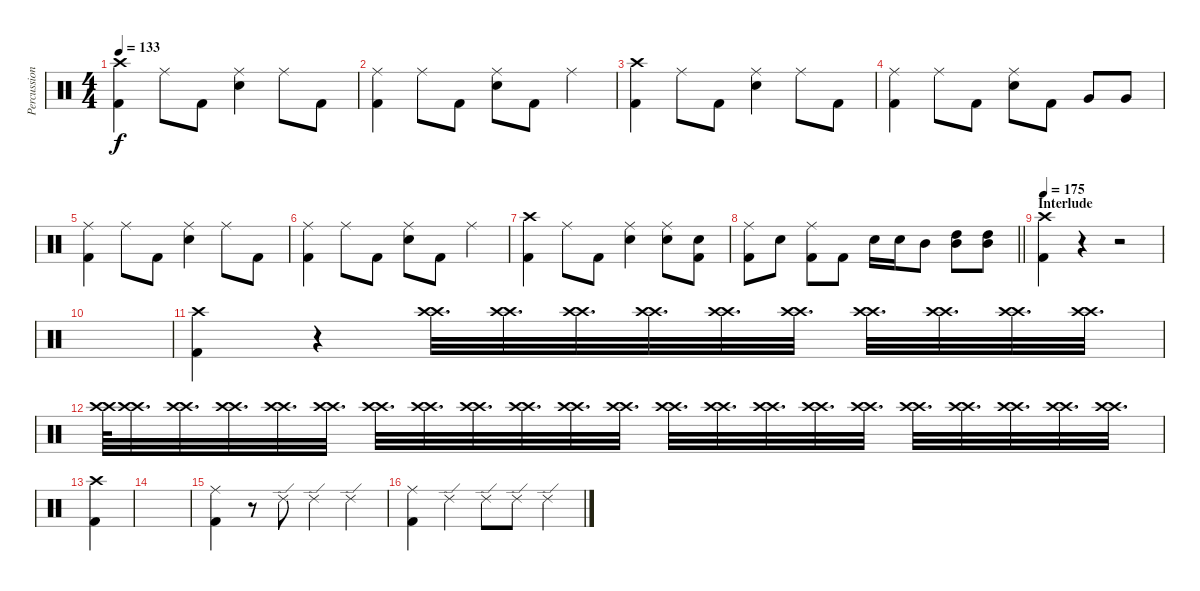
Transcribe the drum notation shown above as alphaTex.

\track ("Percussion" "Percussion") {instrument percussion}
\staff {score}
\articulation defaults
\ts (4 4)
\tempo 133
\clef neutral
\ks c
("Crash high (hit)" "Kick (hit) 2").4{dy f} "Ride (middle)".8 "Kick (hit) 2".8 ("Ride (middle)" "Electric Snare (hit)").4 "Ride (middle)".8 "Kick (hit) 2".8 |
("Ride (middle)" "Kick (hit) 2").4 "Ride (middle)".8 "Kick (hit) 2".8 ("Ride (middle)" "Electric Snare (hit)").8 "Kick (hit) 2".8 "Ride (middle)".4 |
("Crash high (hit)" "Kick (hit) 2").4 "Ride (middle)".8 "Kick (hit) 2".8 ("Ride (middle)" "Electric Snare (hit)").4 "Ride (middle)".8 "Kick (hit) 2".8 |
("Ride (middle)" "Kick (hit) 2").4 "Ride (middle)".8 "Kick (hit) 2".8 ("Ride (middle)" "Electric Snare (hit)").8 "Kick (hit) 2".8 "Very Low Tom (hit)".8 "Very Low Tom (hit)".8 |
("Ride (middle)" "Kick (hit) 2").4 "Ride (middle)".8 "Kick (hit) 2".8 ("Ride (middle)" "Electric Snare (hit)").4 "Ride (middle)".8 "Kick (hit) 2".8 |
("Ride (middle)" "Kick (hit) 2").4 "Ride (middle)".8 "Kick (hit) 2".8 ("Ride (middle)" "Electric Snare (hit)").8 "Kick (hit) 2".8 "Ride (middle)".4 |
("Crash high (hit)" "Kick (hit) 2").4 "Ride (middle)".8 "Kick (hit) 2".8 ("Ride (middle)" "Electric Snare (hit)").4 ("Ride (middle)" "Electric Snare (hit)").8 ("Electric Snare (hit)" "Kick (hit) 2").8 |
\barLineRight lightlight
("Ride (middle)" "Kick (hit) 2").8 "Electric Snare (hit)".8 ("Ride (middle)" "Kick (hit) 2").8 "Kick (hit) 2".8 "Electric Snare (hit)".16 "Electric Snare (hit)".16 "Mid Tom (hit)".8 ("Mid Tom (hit)" "High Tom (hit)").8 ("Mid Tom (hit)" "High Tom (hit)").8 |
\section ("" "Interlude")
\tempo 175
("Crash high (hit)" "Kick (hit) 2").4 r.4 r.2 |
|
("Crash high (hit)" "Kick (hit) 2").4 r.4 ("Crash high (hit)" "Crash high (hit)").32{d volume 0} ("Crash high (hit)" "Crash high (hit)").32{d volume 13} ("Crash high (hit)" "Crash high (hit)").32{d} ("Crash high (hit)" "Crash high (hit)").32{d} ("Crash high (hit)" "Crash high (hit)").32{d} ("Crash high (hit)" "Crash high (hit)").32{d} ("Crash high (hit)" "Crash high (hit)").32{d} ("Crash high (hit)" "Crash high (hit)").32{d} ("Crash high (hit)" "Crash high (hit)").32{d} ("Crash high (hit)" "Crash high (hit)").32{d} |
("Crash high (hit)" "Crash high (hit)").64 ("Crash high (hit)" "Crash high (hit)").32{d} ("Crash high (hit)" "Crash high (hit)").32{d} ("Crash high (hit)" "Crash high (hit)").32{d} ("Crash high (hit)" "Crash high (hit)").32{d} ("Crash high (hit)" "Crash high (hit)").32{d} ("Crash high (hit)" "Crash high (hit)").32{d} ("Crash high (hit)" "Crash high (hit)").32{d} ("Crash high (hit)" "Crash high (hit)").32{d} ("Crash high (hit)" "Crash high (hit)").32{d} ("Crash high (hit)" "Crash high (hit)").32{d} ("Crash high (hit)" "Crash high (hit)").32{d} ("Crash high (hit)" "Crash high (hit)").32{d} ("Crash high (hit)" "Crash high (hit)").32{d} ("Crash high (hit)" "Crash high (hit)").32{d} ("Crash high (hit)" "Crash high (hit)").32{d} ("Crash high (hit)" "Crash high (hit)").32{d} ("Crash high (hit)" "Crash high (hit)").32{d} ("Crash high (hit)" "Crash high (hit)").32{d} ("Crash high (hit)" "Crash high (hit)").32{d} ("Crash high (hit)" "Crash high (hit)").32{d} ("Crash high (hit)" "Crash high (hit)").32{d} |
("Crash high (hit)" "Kick (hit) 2").4 |
|
("Ride (middle)" "Kick (hit) 2").4 r.8 "Ride (edge) 2".8 "Ride (edge) 2".4 "Ride (edge) 2".4 |
("Ride (middle)" "Kick (hit) 2").4 "Ride (edge) 2".4 "Ride (edge) 2".8 "Ride (edge) 2".8 "Ride (edge) 2".4
